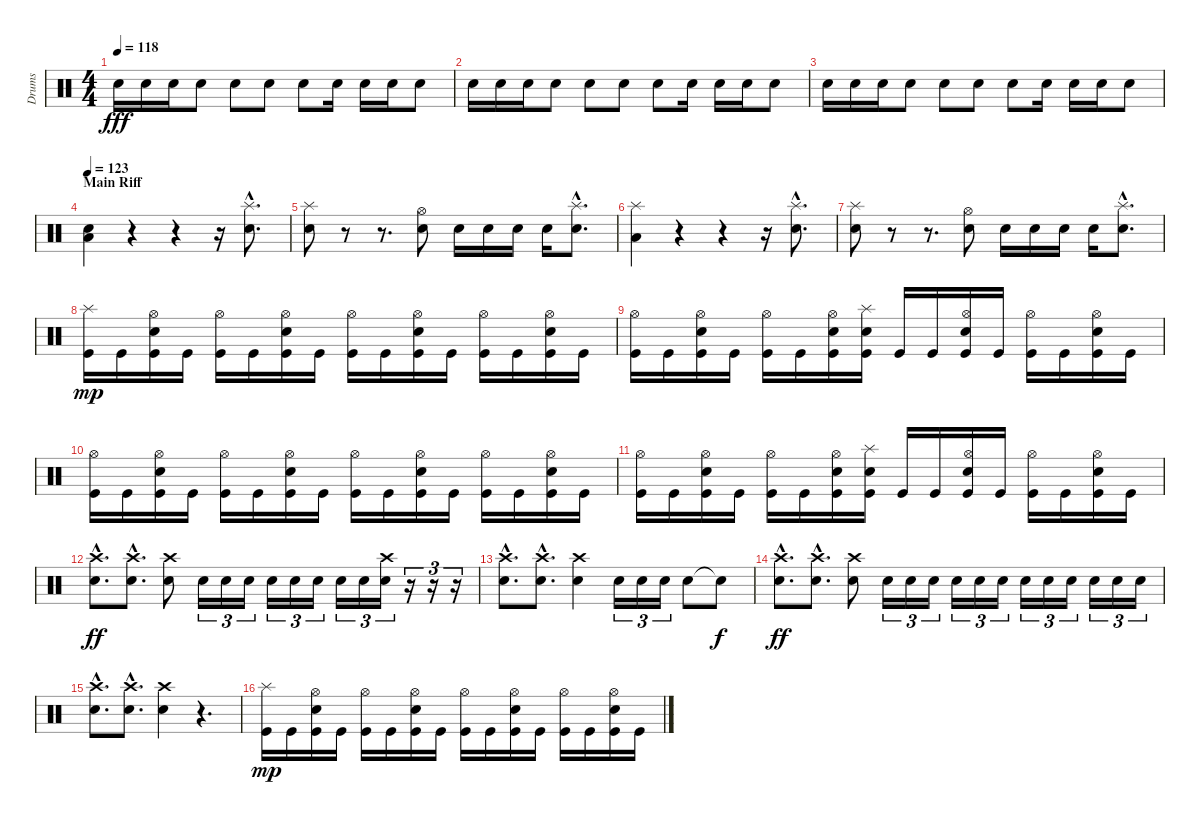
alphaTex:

\track ("Drums" "Drums") {instrument percussion}
\staff {score}
\articulation defaults
\ts (4 4)
\tempo 118
\clef neutral
\ks c "Electric Snare (hit)".16{dy fff} "Electric Snare (hit)".16 "Electric Snare (hit)".16 "Electric Snare (hit)".8 "Electric Snare (hit)".8 "Electric Snare (hit)".8 "Electric Snare (hit)".8 "Electric Snare (hit)".16 "Electric Snare (hit)".16 "Electric Snare (hit)".16 "Electric Snare (hit)".8
|
"Electric Snare (hit)".16 "Electric Snare (hit)".16 "Electric Snare (hit)".16 "Electric Snare (hit)".8 "Electric Snare (hit)".8 "Electric Snare (hit)".8 "Electric Snare (hit)".8 "Electric Snare (hit)".16 "Electric Snare (hit)".16 "Electric Snare (hit)".16 "Electric Snare (hit)".8 |
"Electric Snare (hit)".16 "Electric Snare (hit)".16 "Electric Snare (hit)".16 "Electric Snare (hit)".8 "Electric Snare (hit)".8 "Electric Snare (hit)".8 "Electric Snare (hit)".8 "Electric Snare (hit)".16 "Electric Snare (hit)".16 "Electric Snare (hit)".16 "Electric Snare (hit)".8 |
\section ("" "Main Riff")
\tempo 123
("Electric Snare (hit)" "Low Tom (hit)").4 r.4 r.4 r.16 ("Splash (hit)"{hac} "Electric Snare (hit)"{hac}).8{d} |
("Splash (hit)" "Electric Snare (hit)").8 r.8 r.8{d} ("Hi-Hat (open)" "Electric Snare (hit)").8 "Snare (hit) 2".16 "Snare (hit) 2".16 "Snare (hit) 2".16 "Snare (hit) 2".16 ("Splash (hit)"{hac} "Snare (hit) 2"{hac}).8{d} |
("Splash (hit)" "Low Tom (hit)").4 r.4 r.4 r.16 ("Splash (hit)"{hac} "Electric Snare (hit)"{hac}).8{d} |
("Splash (hit)" "Electric Snare (hit)").8 r.8 r.8{d} ("Hi-Hat (open)" "Electric Snare (hit)").8 "Snare (hit) 2".16 "Snare (hit) 2".16 "Snare (hit) 2".16 "Snare (hit) 2".16 ("Splash (hit)"{hac} "Snare (hit) 2"{hac}).8{d} |
("Splash (hit)" "Kick (hit)").16{dy mp} "Kick (hit)".16 ("Hi-Hat (open)" "Electric Snare (hit)" "Kick (hit)").16 "Kick (hit)".16 ("Hi-Hat (open)" "Kick (hit)").16 "Kick (hit)".16 ("Hi-Hat (open)" "Electric Snare (hit)" "Kick (hit)").16 "Kick (hit)".16 ("Hi-Hat (open)" "Kick (hit)").16 "Kick (hit)".16 ("Hi-Hat (open)" "Electric Snare (hit)" "Kick (hit)").16 "Kick (hit)".16 ("Hi-Hat (open)" "Kick (hit)").16 "Kick (hit)".16 ("Hi-Hat (open)" "Electric Snare (hit)" "Kick (hit)").16 "Kick (hit)".16 |
("Hi-Hat (open)" "Kick (hit)").16 "Kick (hit)".16 ("Hi-Hat (open)" "Electric Snare (hit)" "Kick (hit)").16 "Kick (hit)".16 ("Hi-Hat (open)" "Kick (hit)").16 "Kick (hit)".16 ("Hi-Hat (open)" "Electric Snare (hit)" "Kick (hit)").16 ("Splash (hit)" "Electric Snare (hit)" "Kick (hit)").16 "Kick (hit)".16 "Kick (hit)".16 ("Hi-Hat (open)" "Electric Snare (hit)" "Kick (hit)").16 "Kick (hit)".16 ("Hi-Hat (open)" "Kick (hit)").16 "Kick (hit)".16 ("Hi-Hat (open)" "Electric Snare (hit)" "Kick (hit)").16 "Kick (hit)".16 |
("Hi-Hat (open)" "Kick (hit)").16 "Kick (hit)".16 ("Hi-Hat (open)" "Electric Snare (hit)" "Kick (hit)").16 "Kick (hit)".16 ("Hi-Hat (open)" "Kick (hit)").16 "Kick (hit)".16 ("Hi-Hat (open)" "Electric Snare (hit)" "Kick (hit)").16 "Kick (hit)".16 ("Hi-Hat (open)" "Kick (hit)").16 "Kick (hit)".16 ("Hi-Hat (open)" "Electric Snare (hit)" "Kick (hit)").16 "Kick (hit)".16 ("Hi-Hat (open)" "Kick (hit)").16 "Kick (hit)".16 ("Hi-Hat (open)" "Electric Snare (hit)" "Kick (hit)").16 "Kick (hit)".16 |
("Hi-Hat (open)" "Kick (hit)").16 "Kick (hit)".16 ("Hi-Hat (open)" "Electric Snare (hit)" "Kick (hit)").16 "Kick (hit)".16 ("Hi-Hat (open)" "Kick (hit)").16 "Kick (hit)".16 ("Hi-Hat (open)" "Electric Snare (hit)" "Kick (hit)").16 ("Splash (hit)" "Electric Snare (hit)" "Kick (hit)").16 "Kick (hit)".16 "Kick (hit)".16 ("Hi-Hat (open)" "Electric Snare (hit)" "Kick (hit)").16 "Kick (hit)".16 ("Hi-Hat (open)" "Kick (hit)").16 "Kick (hit)".16 ("Hi-Hat (open)" "Electric Snare (hit)" "Kick (hit)").16 "Kick (hit)".16 |
("Crash high (hit)"{hac} "Electric Snare (hit)"{hac}).8{d dy ff} ("Crash high (hit)"{hac} "Electric Snare (hit)"{hac}).8{d} ("Crash high (hit)" "Electric Snare (hit)").8 "Electric Snare (hit)".16{tu (3 2)} "Electric Snare (hit)".16{tu (3 2)} "Snare (hit) 2".16{tu (3 2)} "Snare (hit) 2".16{tu (3 2)} "Snare (hit) 2".16{tu (3 2)} "Snare (hit) 2".16{tu (3 2)} "Snare (hit) 2".16{tu (3 2)} "Snare (hit) 2".16{tu (3 2)} ("Crash high (hit)" "Snare (hit) 2").16{tu (3 2)} r.16{tu (3 2)} r.16{tu (3 2)} r.16{tu (3 2)} |
("Crash high (hit)"{hac} "Electric Snare (hit)"{hac}).8{d} ("Crash high (hit)"{hac} "Electric Snare (hit)"{hac}).8{d} ("Crash high (hit)" "Electric Snare (hit)").4 "Snare (hit) 2".16{tu (3 2)} "Snare (hit) 2".16{tu (3 2)} "Snare (hit) 2".16{tu (3 2)} "Electric Snare (hit)".8 "Snare (hit)"{t}.8{dy f} |
("Crash high (hit)"{hac} "Electric Snare (hit)"{hac}).8{d dy ff} ("Crash high (hit)"{hac} "Electric Snare (hit)"{hac}).8{d} ("Crash high (hit)" "Electric Snare (hit)").8 "Electric Snare (hit)".16{tu (3 2)} "Electric Snare (hit)".16{tu (3 2)} "Snare (hit) 2".16{tu (3 2)} "Snare (hit) 2".16{tu (3 2)} "Snare (hit) 2".16{tu (3 2)} "Snare (hit) 2".16{tu (3 2)} "Snare (hit) 2".16{tu (3 2)} "Snare (hit) 2".16{tu (3 2)} "Snare (hit) 2".16{tu (3 2)} "Snare (hit) 2".16{tu (3 2)} "Snare (hit) 2".16{tu (3 2)} "Snare (hit) 2".16{tu (3 2)} |
("Crash high (hit)"{hac} "Electric Snare (hit)"{hac}).8{d} ("Crash high (hit)"{hac} "Electric Snare (hit)"{hac}).8{d} ("Crash high (hit)" "Electric Snare (hit)").4 r.4{d} |
("Splash (hit)" "Kick (hit)").16{dy mp} "Kick (hit)".16 ("Hi-Hat (open)" "Electric Snare (hit)" "Kick (hit)").16 "Kick (hit)".16 ("Hi-Hat (open)" "Kick (hit)").16 "Kick (hit)".16 ("Hi-Hat (open)" "Electric Snare (hit)" "Kick (hit)").16 "Kick (hit)".16 ("Hi-Hat (open)" "Kick (hit)").16 "Kick (hit)".16 ("Hi-Hat (open)" "Electric Snare (hit)" "Kick (hit)").16 "Kick (hit)".16 ("Hi-Hat (open)" "Kick (hit)").16 "Kick (hit)".16 ("Hi-Hat (open)" "Electric Snare (hit)" "Kick (hit)").16 "Kick (hit)".16
